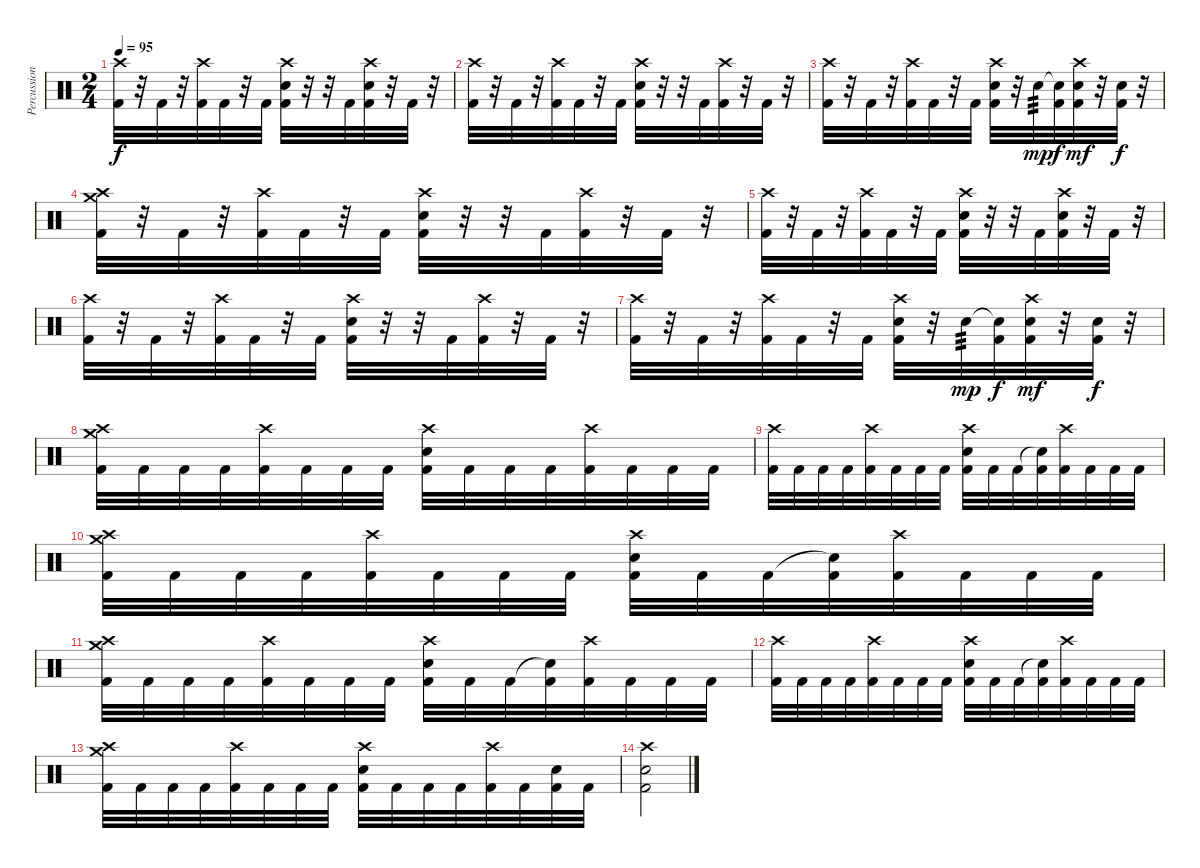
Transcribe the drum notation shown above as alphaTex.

\track ("Percussion" "Percussion") {instrument percussion}
\staff {score}
\articulation defaults
\ts (2 4)
\tempo 95
\clef neutral
\ks c
("Crash high (hit)" "Kick (hit) 2").32{dy f} r.32 "Kick (hit) 2".32 r.32 ("Crash high (hit)" "Kick (hit) 2").32 "Kick (hit) 2".32 r.32 "Kick (hit) 2".32 ("Crash high (hit)" "Electric Snare (hit)" "Kick (hit) 2").32 r.32 r.32 "Kick (hit) 2".32 ("Crash high (hit)" "Electric Snare (hit)" "Kick (hit) 2").32 r.32 "Kick (hit) 2".32 r.32 |
("Crash high (hit)" "Kick (hit) 2").32 r.32 "Kick (hit) 2".32 r.32 ("Crash high (hit)" "Kick (hit) 2").32 "Kick (hit) 2".32 r.32 "Kick (hit) 2".32 ("Crash high (hit)" "Electric Snare (hit)" "Kick (hit) 2").32 r.32 r.32 "Kick (hit) 2".32 ("Crash high (hit)" "Kick (hit) 2").32 r.32 "Kick (hit) 2".32 r.32 |
("Crash high (hit)" "Kick (hit) 2").32 r.32 "Kick (hit) 2".32 r.32 ("Crash high (hit)" "Kick (hit) 2").32 "Kick (hit) 2".32 r.32 "Kick (hit) 2".32 ("Crash high (hit)" "Electric Snare (hit)" "Kick (hit) 2").32 r.32 "Electric Snare (hit)".32{tp 3 dy mp} ("Snare (hit)"{t} "Kick (hit) 2").32{dy f} ("Crash high (hit)" "Electric Snare (hit)" "Kick (hit) 2").32{dy mf} r.32 ("Electric Snare (hit)" "Kick (hit) 2").32{dy f} r.32 |
("Crash medium (hit)" "Crash high (hit)" "Kick (hit) 2").32 r.32 "Kick (hit) 2".32 r.32 ("Crash high (hit)" "Kick (hit) 2").32 "Kick (hit) 2".32 r.32 "Kick (hit) 2".32 ("Crash high (hit)" "Electric Snare (hit)" "Kick (hit) 2").32 r.32 r.32 "Kick (hit) 2".32 ("Crash high (hit)" "Kick (hit) 2").32 r.32 "Kick (hit) 2".32 r.32 |
("Crash high (hit)" "Kick (hit) 2").32 r.32 "Kick (hit) 2".32 r.32 ("Crash high (hit)" "Kick (hit) 2").32 "Kick (hit) 2".32 r.32 "Kick (hit) 2".32 ("Crash high (hit)" "Electric Snare (hit)" "Kick (hit) 2").32 r.32 r.32 "Kick (hit) 2".32 ("Crash high (hit)" "Electric Snare (hit)" "Kick (hit) 2").32 r.32 "Kick (hit) 2".32 r.32 |
("Crash high (hit)" "Kick (hit) 2").32 r.32 "Kick (hit) 2".32 r.32 ("Crash high (hit)" "Kick (hit) 2").32 "Kick (hit) 2".32 r.32 "Kick (hit) 2".32 ("Crash high (hit)" "Electric Snare (hit)" "Kick (hit) 2").32 r.32 r.32 "Kick (hit) 2".32 ("Crash high (hit)" "Kick (hit) 2").32 r.32 "Kick (hit) 2".32 r.32 |
("Crash high (hit)" "Kick (hit) 2").32 r.32 "Kick (hit) 2".32 r.32 ("Crash high (hit)" "Kick (hit) 2").32 "Kick (hit) 2".32 r.32 "Kick (hit) 2".32 ("Crash high (hit)" "Electric Snare (hit)" "Kick (hit) 2").32 r.32 "Electric Snare (hit)".32{tp 3 dy mp} ("Snare (hit)"{t} "Kick (hit) 2").32{dy f} ("Crash high (hit)" "Electric Snare (hit)" "Kick (hit) 2").32{dy mf} r.32 ("Electric Snare (hit)" "Kick (hit) 2").32{dy f} r.32 |
("Crash medium (hit)" "Crash high (hit)" "Kick (hit) 2").32 "Kick (hit) 2".32 "Kick (hit) 2".32 "Kick (hit) 2".32 ("Crash high (hit)" "Kick (hit) 2").32 "Kick (hit) 2".32 "Kick (hit) 2".32 "Kick (hit) 2".32 ("Crash high (hit)" "Electric Snare (hit)" "Kick (hit) 2").32 "Kick (hit) 2".32 "Kick (hit) 2".32 "Kick (hit) 2".32 ("Crash high (hit)" "Kick (hit) 2").32 "Kick (hit) 2".32 "Kick (hit) 2".32 "Kick (hit) 2".32 |
("Crash high (hit)" "Kick (hit) 2").32 "Kick (hit) 2".32 "Kick (hit) 2".32 "Kick (hit) 2".32 ("Crash high (hit)" "Kick (hit) 2").32 "Kick (hit) 2".32 "Kick (hit) 2".32 "Kick (hit) 2".32 ("Crash high (hit)" "Electric Snare (hit)" "Kick (hit) 2").32 "Kick (hit) 2".32 "Kick (hit) 2".32 ("Snare (hit)"{t} "Kick (hit) 2").32 ("Crash high (hit)" "Kick (hit) 2").32 "Kick (hit) 2".32 "Kick (hit) 2".32 "Kick (hit) 2".32 |
("Crash medium (hit)" "Crash high (hit)" "Kick (hit) 2").32 "Kick (hit) 2".32 "Kick (hit) 2".32 "Kick (hit) 2".32 ("Crash high (hit)" "Kick (hit) 2").32 "Kick (hit) 2".32 "Kick (hit) 2".32 "Kick (hit) 2".32 ("Crash high (hit)" "Electric Snare (hit)" "Kick (hit) 2").32 "Kick (hit) 2".32 "Kick (hit) 2".32 ("Snare (hit)"{t} "Kick (hit) 2").32 ("Crash high (hit)" "Kick (hit) 2").32 "Kick (hit) 2".32 "Kick (hit) 2".32 "Kick (hit) 2".32 |
("Crash medium (hit)" "Crash high (hit)" "Kick (hit) 2").32 "Kick (hit) 2".32 "Kick (hit) 2".32 "Kick (hit) 2".32 ("Crash high (hit)" "Kick (hit) 2").32 "Kick (hit) 2".32 "Kick (hit) 2".32 "Kick (hit) 2".32 ("Crash high (hit)" "Electric Snare (hit)" "Kick (hit) 2").32 "Kick (hit) 2".32 "Kick (hit) 2".32 ("Snare (hit)"{t} "Kick (hit) 2").32 ("Crash high (hit)" "Kick (hit) 2").32 "Kick (hit) 2".32 "Kick (hit) 2".32 "Kick (hit) 2".32 |
("Crash high (hit)" "Kick (hit) 2").32 "Kick (hit) 2".32 "Kick (hit) 2".32 "Kick (hit) 2".32 ("Crash high (hit)" "Kick (hit) 2").32 "Kick (hit) 2".32 "Kick (hit) 2".32 "Kick (hit) 2".32 ("Crash high (hit)" "Electric Snare (hit)" "Kick (hit) 2").32 "Kick (hit) 2".32 "Kick (hit) 2".32 ("Snare (hit)"{t} "Kick (hit) 2").32 ("Crash high (hit)" "Kick (hit) 2").32 "Kick (hit) 2".32 "Kick (hit) 2".32 "Kick (hit) 2".32 |
("Crash medium (hit)" "Crash high (hit)" "Kick (hit) 2").32 "Kick (hit) 2".32 "Kick (hit) 2".32 "Kick (hit) 2".32 ("Crash high (hit)" "Kick (hit) 2").32 "Kick (hit) 2".32 "Kick (hit) 2".32 "Kick (hit) 2".32 ("Crash high (hit)" "Electric Snare (hit)" "Kick (hit) 2").32 "Kick (hit) 2".32 "Kick (hit) 2".32 "Kick (hit) 2".32 ("Crash high (hit)" "Kick (hit) 2").32 "Kick (hit) 2".32 ("Electric Snare (hit)" "Kick (hit) 2").32 "Kick (hit) 2".32 |
("Crash high (hit)" "Electric Snare (hit)" "Kick (hit) 2").2
